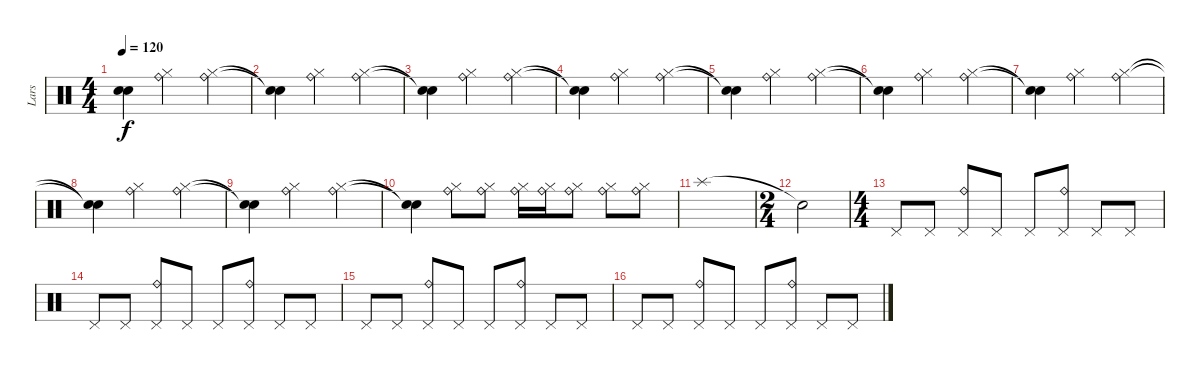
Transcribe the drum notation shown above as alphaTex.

\track ("Lars" "Lars") {instrument percussion}
\staff {score}
\articulation defaults
\ts (4 4)
\tempo 120
\clef neutral
\ks c
("Snare (hit)"{t} "Snare (hit)"{t}).4{dy f} ("Ride (bell)" "Hi-Hat (closed)").2 ("Ride (bell)" "Hi-Hat (closed)").4 |
("Snare (hit)"{t} "Snare (hit)"{t}).4 ("Ride (bell)" "Hi-Hat (closed)").2 ("Ride (bell)" "Hi-Hat (closed)").4 |
("Snare (hit)"{t} "Snare (hit)"{t}).4 ("Ride (bell)" "Hi-Hat (closed)").2 ("Ride (bell)" "Hi-Hat (closed)").4 |
("Snare (hit)"{t} "Snare (hit)"{t}).4 ("Ride (bell)" "Hi-Hat (closed)").2 ("Ride (bell)" "Hi-Hat (closed)").4 |
("Snare (hit)"{t} "Snare (hit)"{t}).4 ("Ride (bell)" "Hi-Hat (closed)").2 ("Ride (bell)" "Hi-Hat (closed)").4 |
("Snare (hit)"{t} "Snare (hit)"{t}).4 ("Ride (bell)" "Hi-Hat (closed)").2 ("Ride (bell)" "Hi-Hat (closed)").4 |
("Snare (hit)"{t} "Snare (hit)"{t}).4 ("Ride (bell)" "Hi-Hat (closed)").2 ("Ride (bell)" "Hi-Hat (closed)").4 |
("Snare (hit)"{t} "Snare (hit)"{t}).4 ("Ride (bell)" "Hi-Hat (closed)").2 ("Ride (bell)" "Hi-Hat (closed)").4 |
("Snare (hit)"{t} "Snare (hit)"{t}).4 ("Ride (bell)" "Hi-Hat (closed)").2 ("Ride (bell)" "Hi-Hat (closed)").4 |
("Snare (hit)"{t} "Snare (hit)"{t}).4 ("Ride (bell)" "Hi-Hat (closed)").8 ("Hi-Hat (closed)" "Ride (bell)").8 ("Ride (bell)" "Hi-Hat (closed)").16 ("Ride (bell)" "Hi-Hat (closed)").16 ("Ride (bell)" "Hi-Hat (closed)").8 ("Ride (bell)" "Hi-Hat (closed)").8 ("Ride (bell)" "Hi-Hat (closed)").8 |
"Splash (hit)".1 |
\ts (2 4)
"Snare (hit)"{t}.2 |
\ts (4 4)
"Pedal Hi-Hat (hit)".8 "Pedal Hi-Hat (hit)".8 ("Pedal Hi-Hat (hit)" "Ride (bell)").8 "Pedal Hi-Hat (hit)".8 "Pedal Hi-Hat (hit)".8 ("Pedal Hi-Hat (hit)" "Ride (bell)").8 "Pedal Hi-Hat (hit)".8 "Pedal Hi-Hat (hit)".8 |
"Pedal Hi-Hat (hit)".8 "Pedal Hi-Hat (hit)".8 ("Pedal Hi-Hat (hit)" "Ride (bell)").8 "Pedal Hi-Hat (hit)".8 "Pedal Hi-Hat (hit)".8 ("Pedal Hi-Hat (hit)" "Ride (bell)").8 "Pedal Hi-Hat (hit)".8 "Pedal Hi-Hat (hit)".8 |
"Pedal Hi-Hat (hit)".8 "Pedal Hi-Hat (hit)".8 ("Pedal Hi-Hat (hit)" "Ride (bell)").8 "Pedal Hi-Hat (hit)".8 "Pedal Hi-Hat (hit)".8 ("Pedal Hi-Hat (hit)" "Ride (bell)").8 "Pedal Hi-Hat (hit)".8 "Pedal Hi-Hat (hit)".8 |
"Pedal Hi-Hat (hit)".8 "Pedal Hi-Hat (hit)".8 ("Pedal Hi-Hat (hit)" "Ride (bell)").8 "Pedal Hi-Hat (hit)".8 "Pedal Hi-Hat (hit)".8 ("Pedal Hi-Hat (hit)" "Ride (bell)").8 "Pedal Hi-Hat (hit)".8 "Pedal Hi-Hat (hit)".8
